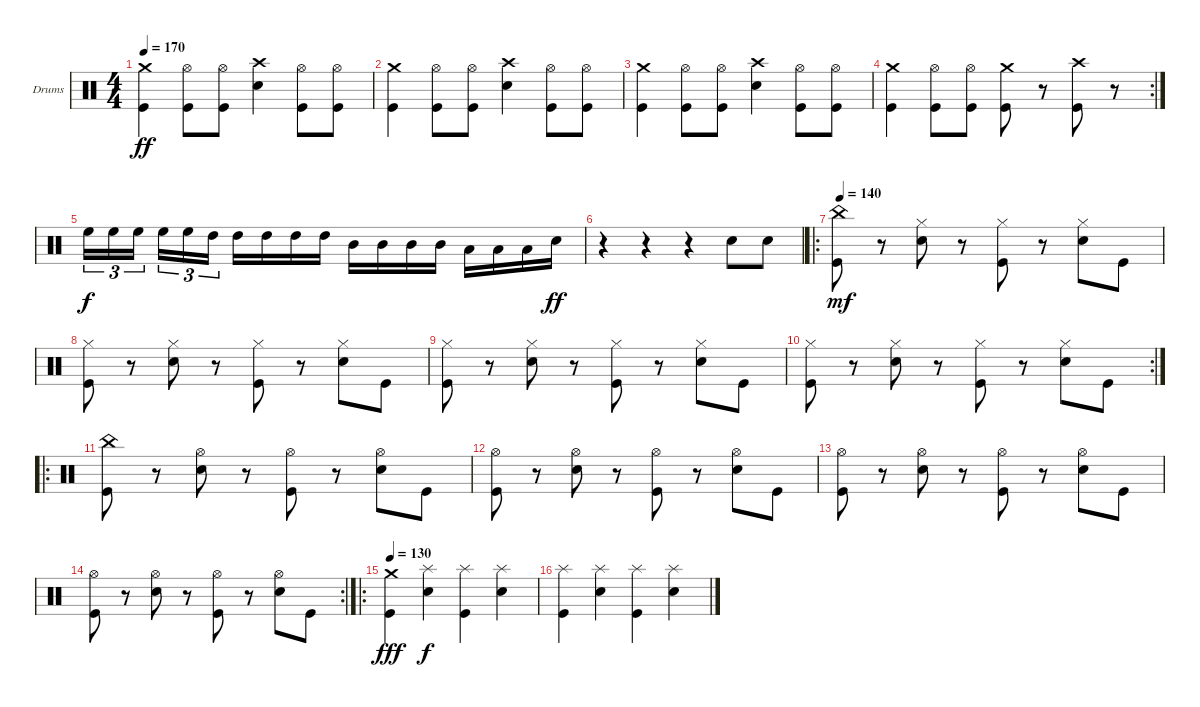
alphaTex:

\bracketExtendMode groupsimilarinstruments
\firstSystemTrackNameOrientation horizontal
\otherSystemsTrackNameOrientation horizontal
\track ("Drums" "Drums") {instrument percussion}
\staff {score}
\articulation defaults
\ts (4 4)
\tempo 170
\clef neutral
\ks c
("Kick (hit)" "Crash medium (hit)").4{dy ff} ("Kick (hit)" "Hi-Hat (open)").8 ("Kick (hit)" "Hi-Hat (open)").8 ("Snare (hit) 2" "Crash high (hit)").4 ("Kick (hit)" "Hi-Hat (open)").8 ("Kick (hit)" "Hi-Hat (open)").8 |
("Kick (hit)" "Crash medium (hit)").4 ("Kick (hit)" "Hi-Hat (open)").8 ("Kick (hit)" "Hi-Hat (open)").8 ("Snare (hit) 2" "Crash high (hit)").4 ("Kick (hit)" "Hi-Hat (open)").8 ("Kick (hit)" "Hi-Hat (open)").8 |
("Kick (hit)" "Crash medium (hit)").4 ("Kick (hit)" "Hi-Hat (open)").8 ("Kick (hit)" "Hi-Hat (open)").8 ("Snare (hit) 2" "Crash high (hit)").4 ("Kick (hit)" "Hi-Hat (open)").8 ("Kick (hit)" "Hi-Hat (open)").8 |
\rc 2
("Kick (hit)" "Crash medium (hit)").4 ("Kick (hit)" "Hi-Hat (open)").8 ("Kick (hit)" "Hi-Hat (open)").8 ("Kick (hit)" "Crash medium (hit)").8 r.8 ("Crash high (hit)" "Kick (hit)").8 r.8 |
"High Floor Tom (hit)".16{tu (3 2) dy f} "High Floor Tom (hit)".16{tu (3 2)} "High Floor Tom (hit)".16{tu (3 2)} "High Floor Tom (hit)".16{tu (3 2)} "High Floor Tom (hit)".16{tu (3 2)} "High Tom (hit)".16{tu (3 2)} "High Tom (hit)".16 "High Tom (hit)".16 "High Tom (hit)".16 "High Tom (hit)".16 "Mid Tom (hit)".16 "Mid Tom (hit)".16 "Mid Tom (hit)".16 "Mid Tom (hit)".16 "Low Tom (hit)".16 "Low Tom (hit)".16 "Low Tom (hit)".16 "Snare (hit) 2".16{dy ff} |
r.4 r.4 r.4 "Snare (hit) 2".8 "Snare (hit) 2".8 |
\ro
\tempo 140
("Kick (hit)" "China (hit)").8{dy mf} r.8 ("Snare (hit) 2" "Hi-Hat (closed)").8 r.8 ("Kick (hit)" "Hi-Hat (closed)").8 r.8 ("Snare (hit) 2" "Hi-Hat (closed)").8 "Kick (hit)".8 |
("Kick (hit)" "Hi-Hat (closed)").8 r.8 ("Snare (hit) 2" "Hi-Hat (closed)").8 r.8 ("Kick (hit)" "Hi-Hat (closed)").8 r.8 ("Snare (hit) 2" "Hi-Hat (closed)").8 "Kick (hit)".8 |
("Kick (hit)" "Hi-Hat (closed)").8 r.8 ("Snare (hit) 2" "Hi-Hat (closed)").8 r.8 ("Kick (hit)" "Hi-Hat (closed)").8 r.8 ("Snare (hit) 2" "Hi-Hat (closed)").8 "Kick (hit)".8 |
\rc 2
("Kick (hit)" "Hi-Hat (closed)").8 r.8 ("Snare (hit) 2" "Hi-Hat (closed)").8 r.8 ("Kick (hit)" "Hi-Hat (closed)").8 r.8 ("Snare (hit) 2" "Hi-Hat (closed)").8 "Kick (hit)".8 |
\ro
("Kick (hit)" "China (hit)").8 r.8 ("Snare (hit) 2" "Hi-Hat (open)").8 r.8 ("Kick (hit)" "Hi-Hat (open)").8 r.8 ("Snare (hit) 2" "Hi-Hat (open)").8 "Kick (hit)".8 |
("Kick (hit)" "Hi-Hat (open)").8 r.8 ("Snare (hit) 2" "Hi-Hat (open)").8 r.8 ("Kick (hit)" "Hi-Hat (open)").8 r.8 ("Snare (hit) 2" "Hi-Hat (open)").8 "Kick (hit)".8 |
("Kick (hit)" "Hi-Hat (open)").8 r.8 ("Snare (hit) 2" "Hi-Hat (open)").8 r.8 ("Kick (hit)" "Hi-Hat (open)").8 r.8 ("Snare (hit) 2" "Hi-Hat (open)").8 "Kick (hit)".8 |
\rc 2
("Kick (hit)" "Hi-Hat (open)").8 r.8 ("Snare (hit) 2" "Hi-Hat (open)").8 r.8 ("Kick (hit)" "Hi-Hat (open)").8 r.8 ("Snare (hit) 2" "Hi-Hat (open)").8 "Kick (hit)".8 |
\ro
\tempo 130
("Crash medium (hit)" "Kick (hit)").4{dy fff} ("Splash (hit)" "Snare (hit) 2").4{dy f} ("Splash (hit)" "Kick (hit)").4 ("Splash (hit)" "Snare (hit) 2").4 |
("Splash (hit)" "Kick (hit)").4 ("Splash (hit)" "Snare (hit) 2").4 ("Splash (hit)" "Kick (hit)").4 ("Splash (hit)" "Snare (hit) 2").4
